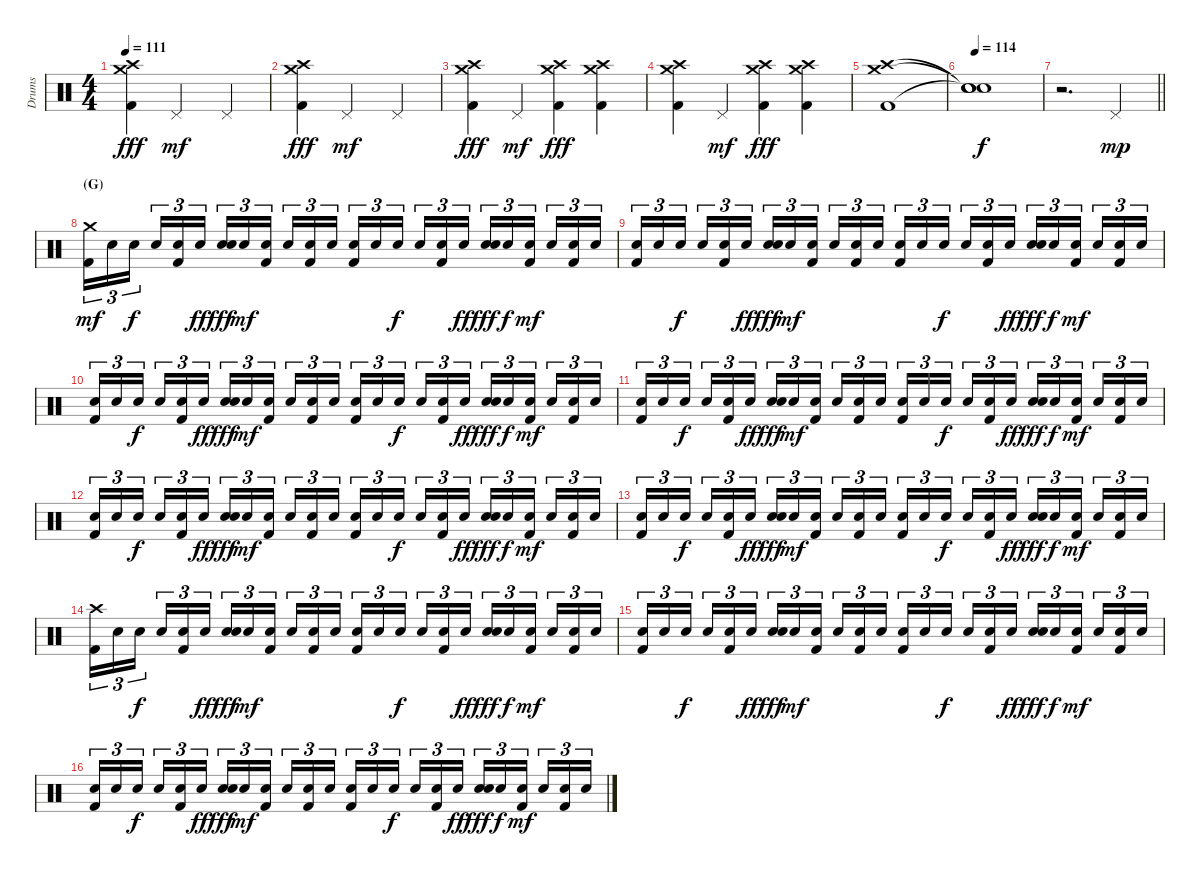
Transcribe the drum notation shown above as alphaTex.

\track ("Drums" "Drums") {instrument percussion}
\staff {score}
\articulation defaults
\ts (4 4)
\tempo 111
\clef neutral
\ks c
("Crash medium (hit)" "Crash high (hit)" "Kick (hit) 2").4{dy fff} "Pedal Hi-Hat (hit)".2{dy mf} "Pedal Hi-Hat (hit)".4 |
("Crash medium (hit)" "Crash high (hit)" "Kick (hit) 2").4{dy fff} "Pedal Hi-Hat (hit)".2{dy mf} "Pedal Hi-Hat (hit)".4 |
("Crash medium (hit)" "Crash high (hit)" "Kick (hit) 2").4{dy fff} "Pedal Hi-Hat (hit)".4{dy mf} ("Crash medium (hit)" "Crash high (hit)" "Kick (hit) 2").4{dy fff} ("Crash medium (hit)" "Crash high (hit)" "Kick (hit) 2").4 |
("Crash medium (hit)" "Crash high (hit)" "Kick (hit) 2").4 "Pedal Hi-Hat (hit)".4{dy mf} ("Crash medium (hit)" "Crash high (hit)" "Kick (hit) 2").4{dy fff} ("Crash medium (hit)" "Crash high (hit)" "Kick (hit) 2").4 |
("Crash medium (hit)" "Crash high (hit)" "Kick (hit) 2").1 |
\tempo 114
("Snare (hit)"{t} "Snare (hit)"{t} "Snare (hit)"{t}).1{dy f} |
\barLineRight lightlight
r.2{d} "Pedal Hi-Hat (hit)".4{dy mp volume 12} |
\section ("" "(G)")
("Crash medium (hit)" "Kick (hit) 2").16{tu (3 2) dy mf} "Snare (hit) 2".16{tu (3 2)} "Snare (hit) 2".16{tu (3 2) dy f beam splitsecondary} "Snare (hit) 2".16{tu (3 2)} ("Snare (hit) 2" "Kick (hit) 2").16{tu (3 2)} "Snare (hit) 2".16{tu (3 2) dy ff} ("Snare (hit) 2" "Snare (hit) 2").16{tu (3 2) dy fff} "Snare (hit) 2".16{tu (3 2) dy mf} ("Snare (hit) 2" "Kick (hit) 2").16{tu (3 2) beam splitsecondary} "Snare (hit) 2".16{tu (3 2)} ("Snare (hit) 2" "Kick (hit) 2").16{tu (3 2)} "Snare (hit) 2".16{tu (3 2)} ("Snare (hit) 2" "Kick (hit) 2").16{tu (3 2)} "Snare (hit) 2".16{tu (3 2)} "Snare (hit) 2".16{tu (3 2) dy f beam splitsecondary} "Snare (hit) 2".16{tu (3 2)} ("Snare (hit) 2" "Kick (hit) 2").16{tu (3 2)} "Snare (hit) 2".16{tu (3 2) dy ff} ("Snare (hit) 2" "Snare (hit) 2").16{tu (3 2) dy fff} "Snare (hit) 2".16{tu (3 2) dy f} ("Snare (hit) 2" "Kick (hit) 2").16{tu (3 2) dy mf beam splitsecondary} "Snare (hit) 2".16{tu (3 2)} ("Snare (hit) 2" "Kick (hit) 2").16{tu (3 2)} "Snare (hit) 2".16{tu (3 2)} |
("Snare (hit) 2" "Kick (hit) 2").16{tu (3 2)} "Snare (hit) 2".16{tu (3 2)} "Snare (hit) 2".16{tu (3 2) dy f beam splitsecondary} "Snare (hit) 2".16{tu (3 2)} ("Snare (hit) 2" "Kick (hit) 2").16{tu (3 2)} "Snare (hit) 2".16{tu (3 2) dy ff} ("Snare (hit) 2" "Snare (hit) 2").16{tu (3 2) dy fff} "Snare (hit) 2".16{tu (3 2) dy mf} ("Snare (hit) 2" "Kick (hit) 2").16{tu (3 2) beam splitsecondary} "Snare (hit) 2".16{tu (3 2)} ("Snare (hit) 2" "Kick (hit) 2").16{tu (3 2)} "Snare (hit) 2".16{tu (3 2)} ("Snare (hit) 2" "Kick (hit) 2").16{tu (3 2)} "Snare (hit) 2".16{tu (3 2)} "Snare (hit) 2".16{tu (3 2) dy f beam splitsecondary} "Snare (hit) 2".16{tu (3 2)} ("Snare (hit) 2" "Kick (hit) 2").16{tu (3 2)} "Snare (hit) 2".16{tu (3 2) dy ff} ("Snare (hit) 2" "Snare (hit) 2").16{tu (3 2) dy fff} "Snare (hit) 2".16{tu (3 2) dy f} ("Snare (hit) 2" "Kick (hit) 2").16{tu (3 2) dy mf beam splitsecondary} "Snare (hit) 2".16{tu (3 2)} ("Snare (hit) 2" "Kick (hit) 2").16{tu (3 2)} "Snare (hit) 2".16{tu (3 2)} |
("Snare (hit) 2" "Kick (hit) 2").16{tu (3 2)} "Snare (hit) 2".16{tu (3 2)} "Snare (hit) 2".16{tu (3 2) dy f beam splitsecondary} "Snare (hit) 2".16{tu (3 2)} ("Snare (hit) 2" "Kick (hit) 2").16{tu (3 2)} "Snare (hit) 2".16{tu (3 2) dy ff} ("Snare (hit) 2" "Snare (hit) 2").16{tu (3 2) dy fff} "Snare (hit) 2".16{tu (3 2) dy mf} ("Snare (hit) 2" "Kick (hit) 2").16{tu (3 2) beam splitsecondary} "Snare (hit) 2".16{tu (3 2)} ("Snare (hit) 2" "Kick (hit) 2").16{tu (3 2)} "Snare (hit) 2".16{tu (3 2)} ("Snare (hit) 2" "Kick (hit) 2").16{tu (3 2)} "Snare (hit) 2".16{tu (3 2)} "Snare (hit) 2".16{tu (3 2) dy f beam splitsecondary} "Snare (hit) 2".16{tu (3 2)} ("Snare (hit) 2" "Kick (hit) 2").16{tu (3 2)} "Snare (hit) 2".16{tu (3 2) dy ff} ("Snare (hit) 2" "Snare (hit) 2").16{tu (3 2) dy fff} "Snare (hit) 2".16{tu (3 2) dy f} ("Snare (hit) 2" "Kick (hit) 2").16{tu (3 2) dy mf beam splitsecondary} "Snare (hit) 2".16{tu (3 2)} ("Snare (hit) 2" "Kick (hit) 2").16{tu (3 2)} "Snare (hit) 2".16{tu (3 2)} |
("Snare (hit) 2" "Kick (hit) 2").16{tu (3 2)} "Snare (hit) 2".16{tu (3 2)} "Snare (hit) 2".16{tu (3 2) dy f beam splitsecondary} "Snare (hit) 2".16{tu (3 2)} ("Snare (hit) 2" "Kick (hit) 2").16{tu (3 2)} "Snare (hit) 2".16{tu (3 2) dy ff} ("Snare (hit) 2" "Snare (hit) 2").16{tu (3 2) dy fff} "Snare (hit) 2".16{tu (3 2) dy mf} ("Snare (hit) 2" "Kick (hit) 2").16{tu (3 2) beam splitsecondary} "Snare (hit) 2".16{tu (3 2)} ("Snare (hit) 2" "Kick (hit) 2").16{tu (3 2)} "Snare (hit) 2".16{tu (3 2)} ("Snare (hit) 2" "Kick (hit) 2").16{tu (3 2)} "Snare (hit) 2".16{tu (3 2)} "Snare (hit) 2".16{tu (3 2) dy f beam splitsecondary} "Snare (hit) 2".16{tu (3 2)} ("Snare (hit) 2" "Kick (hit) 2").16{tu (3 2)} "Snare (hit) 2".16{tu (3 2) dy ff} ("Snare (hit) 2" "Snare (hit) 2").16{tu (3 2) dy fff} "Snare (hit) 2".16{tu (3 2) dy f} ("Snare (hit) 2" "Kick (hit) 2").16{tu (3 2) dy mf beam splitsecondary} "Snare (hit) 2".16{tu (3 2)} ("Snare (hit) 2" "Kick (hit) 2").16{tu (3 2)} "Snare (hit) 2".16{tu (3 2)} |
("Snare (hit) 2" "Kick (hit) 2").16{tu (3 2)} "Snare (hit) 2".16{tu (3 2)} "Snare (hit) 2".16{tu (3 2) dy f beam splitsecondary} "Snare (hit) 2".16{tu (3 2)} ("Snare (hit) 2" "Kick (hit) 2").16{tu (3 2)} "Snare (hit) 2".16{tu (3 2) dy ff} ("Snare (hit) 2" "Snare (hit) 2").16{tu (3 2) dy fff} "Snare (hit) 2".16{tu (3 2) dy mf} ("Snare (hit) 2" "Kick (hit) 2").16{tu (3 2) beam splitsecondary} "Snare (hit) 2".16{tu (3 2)} ("Snare (hit) 2" "Kick (hit) 2").16{tu (3 2)} "Snare (hit) 2".16{tu (3 2)} ("Snare (hit) 2" "Kick (hit) 2").16{tu (3 2)} "Snare (hit) 2".16{tu (3 2)} "Snare (hit) 2".16{tu (3 2) dy f beam splitsecondary} "Snare (hit) 2".16{tu (3 2)} ("Snare (hit) 2" "Kick (hit) 2").16{tu (3 2)} "Snare (hit) 2".16{tu (3 2) dy ff} ("Snare (hit) 2" "Snare (hit) 2").16{tu (3 2) dy fff} "Snare (hit) 2".16{tu (3 2) dy f} ("Snare (hit) 2" "Kick (hit) 2").16{tu (3 2) dy mf beam splitsecondary} "Snare (hit) 2".16{tu (3 2)} ("Snare (hit) 2" "Kick (hit) 2").16{tu (3 2)} "Snare (hit) 2".16{tu (3 2)} |
("Snare (hit) 2" "Kick (hit) 2").16{tu (3 2)} "Snare (hit) 2".16{tu (3 2)} "Snare (hit) 2".16{tu (3 2) dy f beam splitsecondary} "Snare (hit) 2".16{tu (3 2)} ("Snare (hit) 2" "Kick (hit) 2").16{tu (3 2)} "Snare (hit) 2".16{tu (3 2) dy ff} ("Snare (hit) 2" "Snare (hit) 2").16{tu (3 2) dy fff} "Snare (hit) 2".16{tu (3 2) dy mf} ("Snare (hit) 2" "Kick (hit) 2").16{tu (3 2) beam splitsecondary} "Snare (hit) 2".16{tu (3 2)} ("Snare (hit) 2" "Kick (hit) 2").16{tu (3 2)} "Snare (hit) 2".16{tu (3 2)} ("Snare (hit) 2" "Kick (hit) 2").16{tu (3 2)} "Snare (hit) 2".16{tu (3 2)} "Snare (hit) 2".16{tu (3 2) dy f beam splitsecondary} "Snare (hit) 2".16{tu (3 2)} ("Snare (hit) 2" "Kick (hit) 2").16{tu (3 2)} "Snare (hit) 2".16{tu (3 2) dy ff} ("Snare (hit) 2" "Snare (hit) 2").16{tu (3 2) dy fff} "Snare (hit) 2".16{tu (3 2) dy f} ("Snare (hit) 2" "Kick (hit) 2").16{tu (3 2) dy mf beam splitsecondary} "Snare (hit) 2".16{tu (3 2)} ("Snare (hit) 2" "Kick (hit) 2").16{tu (3 2)} "Snare (hit) 2".16{tu (3 2)} |
("Crash high (hit)" "Kick (hit) 2").16{tu (3 2)} "Snare (hit) 2".16{tu (3 2)} "Snare (hit) 2".16{tu (3 2) dy f beam splitsecondary} "Snare (hit) 2".16{tu (3 2)} ("Snare (hit) 2" "Kick (hit) 2").16{tu (3 2)} "Snare (hit) 2".16{tu (3 2) dy ff} ("Snare (hit) 2" "Snare (hit) 2").16{tu (3 2) dy fff} "Snare (hit) 2".16{tu (3 2) dy mf} ("Snare (hit) 2" "Kick (hit) 2").16{tu (3 2) beam splitsecondary} "Snare (hit) 2".16{tu (3 2)} ("Snare (hit) 2" "Kick (hit) 2").16{tu (3 2)} "Snare (hit) 2".16{tu (3 2)} ("Snare (hit) 2" "Kick (hit) 2").16{tu (3 2)} "Snare (hit) 2".16{tu (3 2)} "Snare (hit) 2".16{tu (3 2) dy f beam splitsecondary} "Snare (hit) 2".16{tu (3 2)} ("Snare (hit) 2" "Kick (hit) 2").16{tu (3 2)} "Snare (hit) 2".16{tu (3 2) dy ff} ("Snare (hit) 2" "Snare (hit) 2").16{tu (3 2) dy fff} "Snare (hit) 2".16{tu (3 2) dy f} ("Snare (hit) 2" "Kick (hit) 2").16{tu (3 2) dy mf beam splitsecondary} "Snare (hit) 2".16{tu (3 2)} ("Snare (hit) 2" "Kick (hit) 2").16{tu (3 2)} "Snare (hit) 2".16{tu (3 2)} |
("Snare (hit) 2" "Kick (hit) 2").16{tu (3 2)} "Snare (hit) 2".16{tu (3 2)} "Snare (hit) 2".16{tu (3 2) dy f beam splitsecondary} "Snare (hit) 2".16{tu (3 2)} ("Snare (hit) 2" "Kick (hit) 2").16{tu (3 2)} "Snare (hit) 2".16{tu (3 2) dy ff} ("Snare (hit) 2" "Snare (hit) 2").16{tu (3 2) dy fff} "Snare (hit) 2".16{tu (3 2) dy mf} ("Snare (hit) 2" "Kick (hit) 2").16{tu (3 2) beam splitsecondary} "Snare (hit) 2".16{tu (3 2)} ("Snare (hit) 2" "Kick (hit) 2").16{tu (3 2)} "Snare (hit) 2".16{tu (3 2)} ("Snare (hit) 2" "Kick (hit) 2").16{tu (3 2)} "Snare (hit) 2".16{tu (3 2)} "Snare (hit) 2".16{tu (3 2) dy f beam splitsecondary} "Snare (hit) 2".16{tu (3 2)} ("Snare (hit) 2" "Kick (hit) 2").16{tu (3 2)} "Snare (hit) 2".16{tu (3 2) dy ff} ("Snare (hit) 2" "Snare (hit) 2").16{tu (3 2) dy fff} "Snare (hit) 2".16{tu (3 2) dy f} ("Snare (hit) 2" "Kick (hit) 2").16{tu (3 2) dy mf beam splitsecondary} "Snare (hit) 2".16{tu (3 2)} ("Snare (hit) 2" "Kick (hit) 2").16{tu (3 2)} "Snare (hit) 2".16{tu (3 2)} |
("Snare (hit) 2" "Kick (hit) 2").16{tu (3 2)} "Snare (hit) 2".16{tu (3 2)} "Snare (hit) 2".16{tu (3 2) dy f beam splitsecondary} "Snare (hit) 2".16{tu (3 2)} ("Snare (hit) 2" "Kick (hit) 2").16{tu (3 2)} "Snare (hit) 2".16{tu (3 2) dy ff} ("Snare (hit) 2" "Snare (hit) 2").16{tu (3 2) dy fff} "Snare (hit) 2".16{tu (3 2) dy mf} ("Snare (hit) 2" "Kick (hit) 2").16{tu (3 2) beam splitsecondary} "Snare (hit) 2".16{tu (3 2)} ("Snare (hit) 2" "Kick (hit) 2").16{tu (3 2)} "Snare (hit) 2".16{tu (3 2)} ("Snare (hit) 2" "Kick (hit) 2").16{tu (3 2)} "Snare (hit) 2".16{tu (3 2)} "Snare (hit) 2".16{tu (3 2) dy f beam splitsecondary} "Snare (hit) 2".16{tu (3 2)} ("Snare (hit) 2" "Kick (hit) 2").16{tu (3 2)} "Snare (hit) 2".16{tu (3 2) dy ff} ("Snare (hit) 2" "Snare (hit) 2").16{tu (3 2) dy fff} "Snare (hit) 2".16{tu (3 2) dy f} ("Snare (hit) 2" "Kick (hit) 2").16{tu (3 2) dy mf beam splitsecondary} "Snare (hit) 2".16{tu (3 2)} ("Snare (hit) 2" "Kick (hit) 2").16{tu (3 2)} "Snare (hit) 2".16{tu (3 2)}
